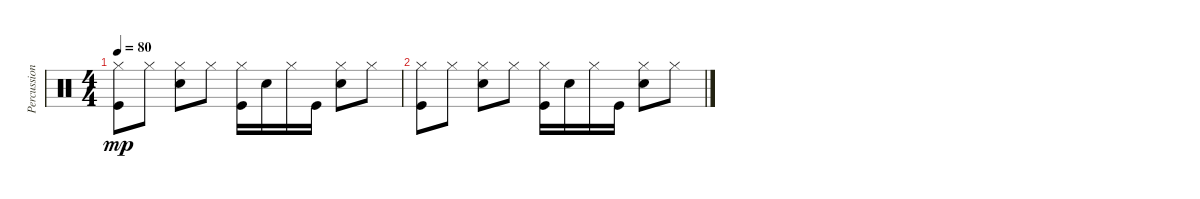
\track ("Percussion" "Percussion") {instrument percussion}
\staff {score}
\articulation defaults
\ts (4 4)
\tempo 80
\clef neutral
\ks c
("Hi-Hat (closed)" "Kick (hit)").8{dy mp} "Hi-Hat (closed)".8 ("Hi-Hat (closed)" "Snare (hit) 2").8 "Hi-Hat (closed)".8 ("Hi-Hat (closed)" "Kick (hit)").16 "Snare (hit) 2".16 "Hi-Hat (closed)".16 "Kick (hit)".16 ("Hi-Hat (closed)" "Snare (hit) 2").8 "Hi-Hat (closed)".8 |
("Hi-Hat (closed)" "Kick (hit)").8 "Hi-Hat (closed)".8 ("Hi-Hat (closed)" "Snare (hit) 2").8 "Hi-Hat (closed)".8 ("Hi-Hat (closed)" "Kick (hit)").16 "Snare (hit) 2".16 "Hi-Hat (closed)".16 "Kick (hit)".16 ("Hi-Hat (closed)" "Snare (hit) 2").8 "Hi-Hat (closed)".8
